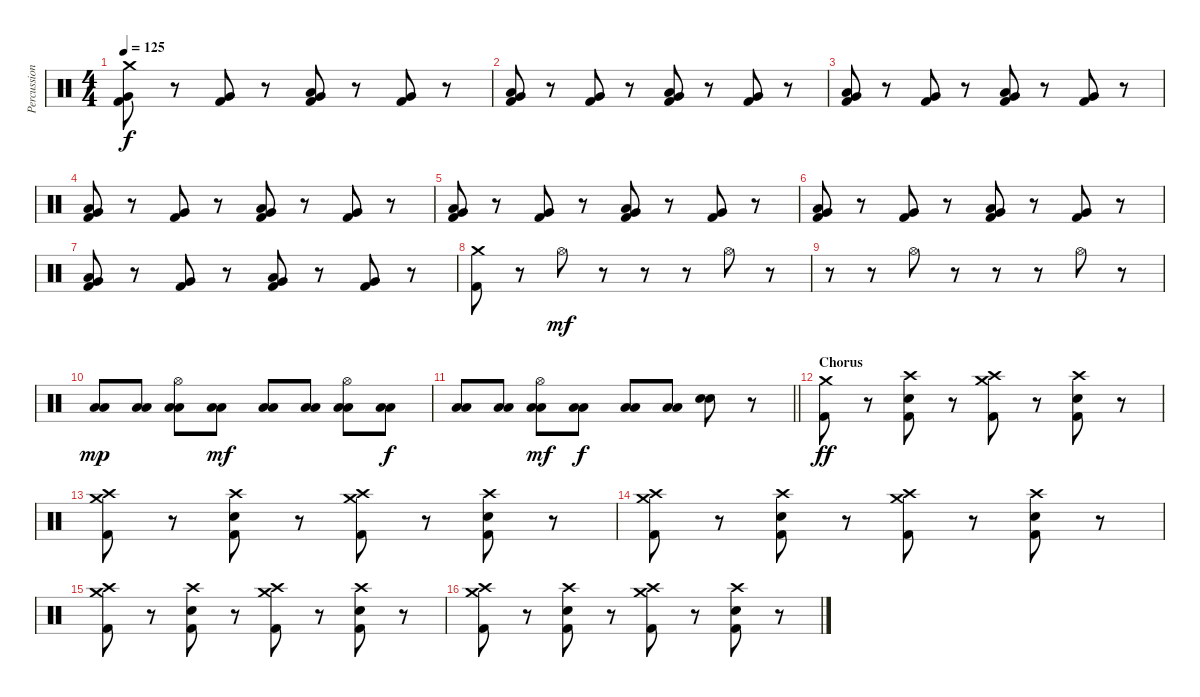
\track ("Percussion" "Percussion") {instrument percussion}
\staff {score}
\articulation defaults
\ts (4 4)
\tempo 125
\clef neutral
\ks c
("Crash medium (hit)" "Very Low Tom (hit)" "Kick (hit) 2").8{dy f} r.8 ("Very Low Tom (hit)" "Kick (hit) 2").8 r.8 ("Very Low Tom (hit)" "Low Floor Tom (hit)" "Kick (hit) 2").8 r.8 ("Very Low Tom (hit)" "Kick (hit) 2").8 r.8 |
("Very Low Tom (hit)" "Low Floor Tom (hit)" "Kick (hit) 2").8 r.8 ("Very Low Tom (hit)" "Kick (hit) 2").8 r.8 ("Very Low Tom (hit)" "Low Floor Tom (hit)" "Kick (hit) 2").8 r.8 ("Very Low Tom (hit)" "Kick (hit) 2").8 r.8 |
("Very Low Tom (hit)" "Low Floor Tom (hit)" "Kick (hit) 2").8 r.8 ("Very Low Tom (hit)" "Kick (hit) 2").8 r.8 ("Very Low Tom (hit)" "Low Floor Tom (hit)" "Kick (hit) 2").8 r.8 ("Very Low Tom (hit)" "Kick (hit) 2").8 r.8 |
("Very Low Tom (hit)" "Low Floor Tom (hit)" "Kick (hit) 2").8 r.8 ("Very Low Tom (hit)" "Kick (hit) 2").8 r.8 ("Very Low Tom (hit)" "Low Floor Tom (hit)" "Kick (hit) 2").8 r.8 ("Very Low Tom (hit)" "Kick (hit) 2").8 r.8 |
("Very Low Tom (hit)" "Low Floor Tom (hit)" "Kick (hit) 2").8 r.8 ("Very Low Tom (hit)" "Kick (hit) 2").8 r.8 ("Very Low Tom (hit)" "Low Floor Tom (hit)" "Kick (hit) 2").8 r.8 ("Very Low Tom (hit)" "Kick (hit) 2").8 r.8 |
("Very Low Tom (hit)" "Low Floor Tom (hit)" "Kick (hit) 2").8 r.8 ("Very Low Tom (hit)" "Kick (hit) 2").8 r.8 ("Very Low Tom (hit)" "Low Floor Tom (hit)" "Kick (hit) 2").8 r.8 ("Very Low Tom (hit)" "Kick (hit) 2").8 r.8 |
("Very Low Tom (hit)" "Low Floor Tom (hit)" "Kick (hit) 2").8 r.8 ("Very Low Tom (hit)" "Kick (hit) 2").8 r.8 ("Very Low Tom (hit)" "Low Floor Tom (hit)" "Kick (hit) 2").8 r.8 ("Very Low Tom (hit)" "Kick (hit) 2").8 r.8 |
("Crash medium (hit)" "Kick (hit) 2").8 r.8 "Hi-Hat (open)".8{dy mf} r.8 r.8 r.8 "Hi-Hat (open)".8 r.8 |
r.8 r.8 "Hi-Hat (open)".8 r.8 r.8 r.8 "Hi-Hat (open)".8 r.8 |
("Low Floor Tom (hit)" "Low Floor Tom (hit)").8{dy mp} ("Low Floor Tom (hit)" "Low Floor Tom (hit)").8 ("Hi-Hat (open)" "Low Floor Tom (hit)" "Low Floor Tom (hit)").8 ("Low Floor Tom (hit)" "Low Floor Tom (hit)").8{dy mf} ("Low Floor Tom (hit)" "Low Floor Tom (hit)").8 ("Low Floor Tom (hit)" "Low Floor Tom (hit)").8 ("Hi-Hat (open)" "Low Floor Tom (hit)" "Low Floor Tom (hit)").8 ("Low Floor Tom (hit)" "Low Floor Tom (hit)").8{dy f} |
\barLineRight lightlight
("Low Floor Tom (hit)" "Low Floor Tom (hit)").8 ("Low Floor Tom (hit)" "Low Floor Tom (hit)").8 ("Hi-Hat (open)" "Low Floor Tom (hit)" "Low Floor Tom (hit)").8{dy mf} ("Low Floor Tom (hit)" "Low Floor Tom (hit)").8{dy f} ("Low Floor Tom (hit)" "Low Floor Tom (hit)").8 ("Low Floor Tom (hit)" "Low Floor Tom (hit)").8 ("Electric Snare (hit)" "Electric Snare (hit)").8 r.8 |
\section ("" "Chorus")
("Crash medium (hit)" "Kick (hit) 2").8{dy ff} r.8 ("Crash high (hit)" "Electric Snare (hit)" "Kick (hit) 2").8 r.8 ("Crash medium (hit)" "Crash high (hit)" "Kick (hit) 2").8 r.8 ("Crash high (hit)" "Electric Snare (hit)" "Kick (hit) 2").8 r.8 |
("Crash medium (hit)" "Crash high (hit)" "Kick (hit) 2").8 r.8 ("Crash high (hit)" "Electric Snare (hit)" "Kick (hit) 2").8 r.8 ("Crash medium (hit)" "Crash high (hit)" "Kick (hit) 2").8 r.8 ("Crash high (hit)" "Electric Snare (hit)" "Kick (hit) 2").8 r.8 |
("Crash medium (hit)" "Crash high (hit)" "Kick (hit) 2").8 r.8 ("Crash high (hit)" "Electric Snare (hit)" "Kick (hit) 2").8 r.8 ("Crash medium (hit)" "Crash high (hit)" "Kick (hit) 2").8 r.8 ("Crash high (hit)" "Electric Snare (hit)" "Kick (hit) 2").8 r.8 |
("Crash medium (hit)" "Crash high (hit)" "Kick (hit) 2").8 r.8 ("Crash high (hit)" "Electric Snare (hit)" "Kick (hit) 2").8 r.8 ("Crash medium (hit)" "Crash high (hit)" "Kick (hit) 2").8 r.8 ("Crash high (hit)" "Electric Snare (hit)" "Kick (hit) 2").8 r.8 |
("Crash medium (hit)" "Crash high (hit)" "Kick (hit) 2").8 r.8 ("Crash high (hit)" "Electric Snare (hit)" "Kick (hit) 2").8 r.8 ("Crash medium (hit)" "Crash high (hit)" "Kick (hit) 2").8 r.8 ("Crash high (hit)" "Electric Snare (hit)" "Kick (hit) 2").8 r.8
